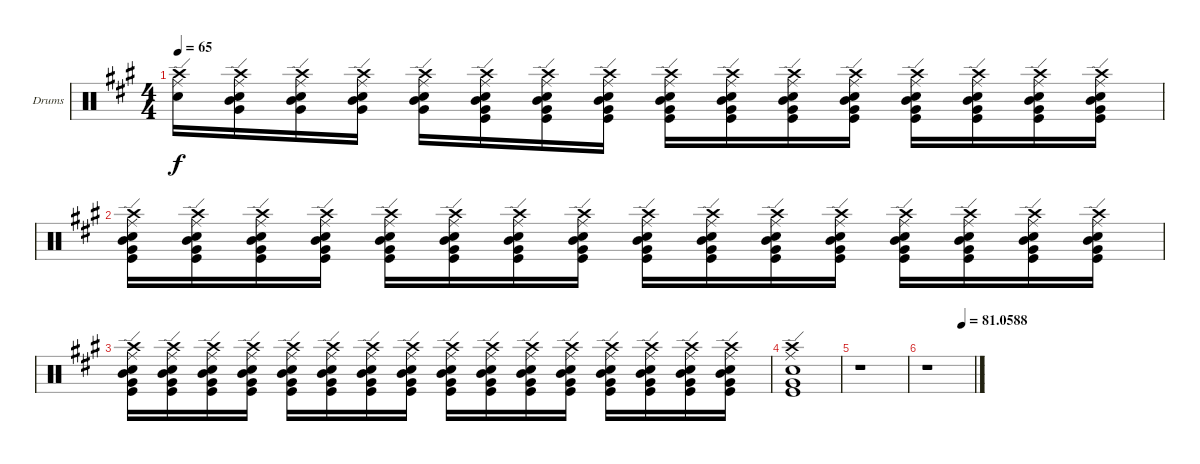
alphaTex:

\bracketExtendMode groupsimilarinstruments
\firstSystemTrackNameOrientation horizontal
\otherSystemsTrackNameOrientation horizontal
\track ("Drumkit" "Drums") {instrument percussion}
\staff {score}
\articulation defaults
\ts (4 4)
\tempo 65
\clef neutral
\ks a
("Ride (edge)" "Crash high (hit)" "Snare (hit) 2").16{dy f} ("Very Low Tom (hit)" "Ride (edge)" "Crash high (hit)" "Mid Tom (hit)" "Snare (hit) 2").16 ("Very Low Tom (hit)" "Ride (edge)" "Crash high (hit)" "Mid Tom (hit)" "Snare (hit) 2").16 ("Very Low Tom (hit)" "Ride (edge)" "Crash high (hit)" "Mid Tom (hit)" "Snare (hit) 2").16 ("Very Low Tom (hit)" "Ride (edge)" "Crash high (hit)" "Mid Tom (hit)" "Snare (hit) 2").16 ("Very Low Tom (hit)" "Ride (edge)" "Crash high (hit)" "Mid Tom (hit)" "Snare (hit) 2" "Kick (hit)").16 ("Very Low Tom (hit)" "Ride (edge)" "Crash high (hit)" "Mid Tom (hit)" "Snare (hit) 2" "Kick (hit)").16 ("Very Low Tom (hit)" "Ride (edge)" "Crash high (hit)" "Mid Tom (hit)" "Snare (hit) 2" "Kick (hit)").16 ("Very Low Tom (hit)" "Ride (edge)" "Crash high (hit)" "Mid Tom (hit)" "Snare (hit) 2" "Kick (hit)").16 ("Very Low Tom (hit)" "Ride (edge)" "Crash high (hit)" "Mid Tom (hit)" "Snare (hit) 2" "Kick (hit)").16 ("Very Low Tom (hit)" "Ride (edge)" "Crash high (hit)" "Mid Tom (hit)" "Snare (hit) 2" "Kick (hit)").16 ("Very Low Tom (hit)" "Ride (edge)" "Crash high (hit)" "Mid Tom (hit)" "Snare (hit) 2" "Kick (hit)").16 ("Very Low Tom (hit)" "Ride (edge)" "Crash high (hit)" "Mid Tom (hit)" "Snare (hit) 2" "Kick (hit)").16 ("Very Low Tom (hit)" "Ride (edge)" "Crash high (hit)" "Mid Tom (hit)" "Snare (hit) 2" "Kick (hit)").16 ("Very Low Tom (hit)" "Ride (edge)" "Crash high (hit)" "Mid Tom (hit)" "Snare (hit) 2" "Kick (hit)").16 ("Very Low Tom (hit)" "Ride (edge)" "Crash high (hit)" "Mid Tom (hit)" "Snare (hit) 2" "Kick (hit)").16 |
("Very Low Tom (hit)" "Ride (edge)" "Crash high (hit)" "Mid Tom (hit)" "Snare (hit) 2" "Kick (hit)").16 ("Very Low Tom (hit)" "Ride (edge)" "Crash high (hit)" "Mid Tom (hit)" "Snare (hit) 2" "Kick (hit)").16 ("Very Low Tom (hit)" "Ride (edge)" "Crash high (hit)" "Mid Tom (hit)" "Snare (hit) 2" "Kick (hit)").16 ("Very Low Tom (hit)" "Ride (edge)" "Crash high (hit)" "Mid Tom (hit)" "Snare (hit) 2" "Kick (hit)").16 ("Very Low Tom (hit)" "Ride (edge)" "Crash high (hit)" "Mid Tom (hit)" "Snare (hit) 2" "Kick (hit)").16 ("Very Low Tom (hit)" "Ride (edge)" "Crash high (hit)" "Mid Tom (hit)" "Snare (hit) 2" "Kick (hit)").16 ("Very Low Tom (hit)" "Ride (edge)" "Crash high (hit)" "Mid Tom (hit)" "Snare (hit) 2" "Kick (hit)").16 ("Very Low Tom (hit)" "Ride (edge)" "Crash high (hit)" "Mid Tom (hit)" "Snare (hit) 2" "Kick (hit)").16 ("Very Low Tom (hit)" "Ride (edge)" "Crash high (hit)" "Mid Tom (hit)" "Snare (hit) 2" "Kick (hit)").16 ("Very Low Tom (hit)" "Ride (edge)" "Crash high (hit)" "Mid Tom (hit)" "Snare (hit) 2" "Kick (hit)").16 ("Very Low Tom (hit)" "Ride (edge)" "Crash high (hit)" "Mid Tom (hit)" "Snare (hit) 2" "Kick (hit)").16 ("Very Low Tom (hit)" "Ride (edge)" "Crash high (hit)" "Mid Tom (hit)" "Snare (hit) 2" "Kick (hit)").16 ("Very Low Tom (hit)" "Ride (edge)" "Crash high (hit)" "Mid Tom (hit)" "Snare (hit) 2" "Kick (hit)").16 ("Very Low Tom (hit)" "Ride (edge)" "Crash high (hit)" "Mid Tom (hit)" "Snare (hit) 2" "Kick (hit)").16 ("Very Low Tom (hit)" "Ride (edge)" "Crash high (hit)" "Mid Tom (hit)" "Snare (hit) 2" "Kick (hit)").16 ("Very Low Tom (hit)" "Ride (edge)" "Crash high (hit)" "Mid Tom (hit)" "Snare (hit) 2" "Kick (hit)").16 |
("Very Low Tom (hit)" "Ride (edge)" "Crash high (hit)" "Mid Tom (hit)" "Snare (hit) 2" "Kick (hit)").16 ("Very Low Tom (hit)" "Ride (edge)" "Crash high (hit)" "Mid Tom (hit)" "Snare (hit) 2" "Kick (hit)").16 ("Very Low Tom (hit)" "Ride (edge)" "Crash high (hit)" "Mid Tom (hit)" "Snare (hit) 2" "Kick (hit)").16 ("Very Low Tom (hit)" "Ride (edge)" "Crash high (hit)" "Mid Tom (hit)" "Snare (hit) 2" "Kick (hit)").16 ("Very Low Tom (hit)" "Ride (edge)" "Crash high (hit)" "Mid Tom (hit)" "Snare (hit) 2" "Kick (hit)").16 ("Very Low Tom (hit)" "Ride (edge)" "Crash high (hit)" "Mid Tom (hit)" "Snare (hit) 2" "Kick (hit)").16 ("Very Low Tom (hit)" "Ride (edge)" "Crash high (hit)" "Mid Tom (hit)" "Snare (hit) 2" "Kick (hit)").16 ("Very Low Tom (hit)" "Ride (edge)" "Crash high (hit)" "Mid Tom (hit)" "Snare (hit) 2" "Kick (hit)").16 ("Very Low Tom (hit)" "Ride (edge)" "Crash high (hit)" "Mid Tom (hit)" "Snare (hit) 2" "Kick (hit)").16 ("Very Low Tom (hit)" "Ride (edge)" "Crash high (hit)" "Mid Tom (hit)" "Snare (hit) 2" "Kick (hit)").16 ("Very Low Tom (hit)" "Ride (edge)" "Crash high (hit)" "Mid Tom (hit)" "Snare (hit) 2" "Kick (hit)").16 ("Very Low Tom (hit)" "Ride (edge)" "Crash high (hit)" "Mid Tom (hit)" "Snare (hit) 2" "Kick (hit)").16 ("Very Low Tom (hit)" "Ride (edge)" "Crash high (hit)" "Mid Tom (hit)" "Snare (hit) 2" "Kick (hit)").16 ("Very Low Tom (hit)" "Ride (edge)" "Crash high (hit)" "Mid Tom (hit)" "Snare (hit) 2" "Kick (hit)").16 ("Very Low Tom (hit)" "Ride (edge)" "Crash high (hit)" "Mid Tom (hit)" "Snare (hit) 2" "Kick (hit)").16 ("Very Low Tom (hit)" "Ride (edge)" "Crash high (hit)" "Mid Tom (hit)" "Snare (hit) 2" "Kick (hit)").16 |
("Very Low Tom (hit)" "Ride (edge)" "Crash high (hit)" "Snare (hit) 2" "Kick (hit)").1 |
r.1 |
\tempo (81.0588 0.75)
r.1
